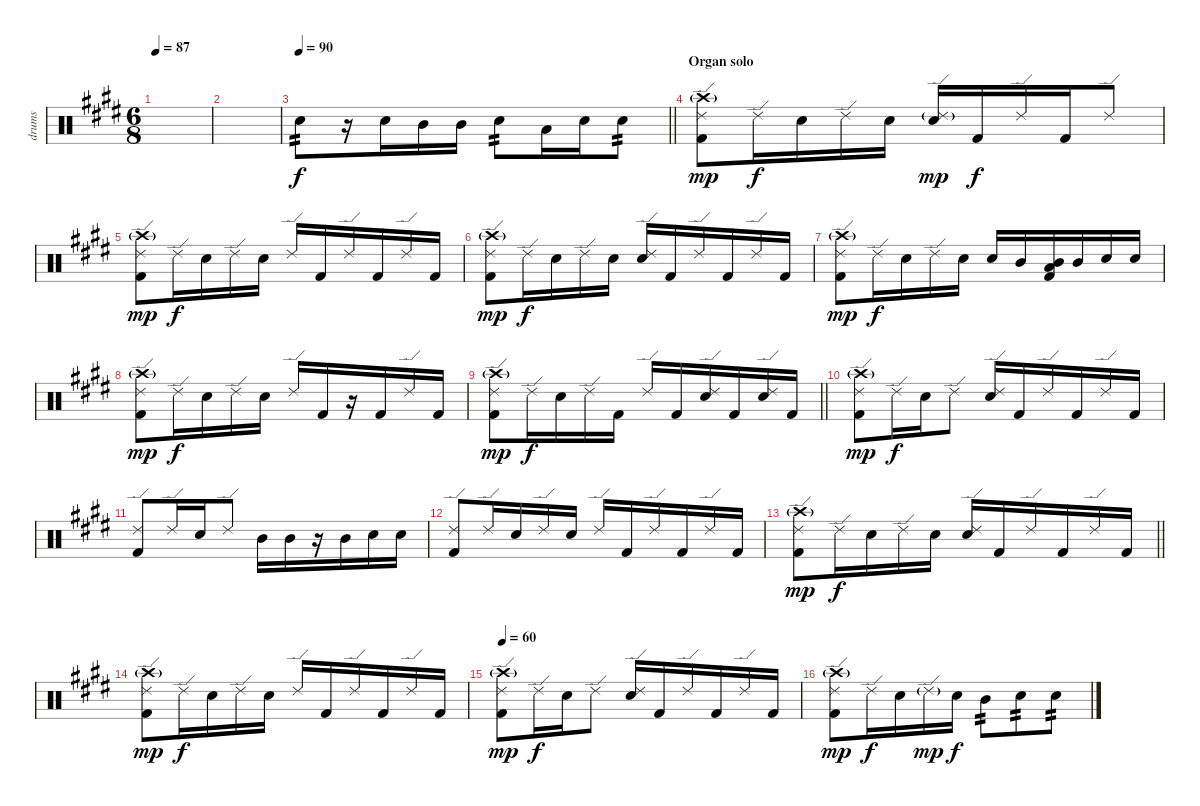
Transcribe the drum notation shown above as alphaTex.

\track ("drums" "drums") {instrument percussion}
\staff {score}
\articulation defaults
\ts (6 8)
\tempo 87
\clef neutral
\ks e
|
|
\tempo 90
\barLineRight lightlight "Electric Snare (hit)".8{tp 2}
r.16 "Electric Snare (hit)".16 "Mid Tom (hit)".16 "Mid Tom (hit)".16 "Electric Snare (hit)".8{tp 2} "Low Tom (hit)".16 "Electric Snare (hit)".16 "Electric Snare (hit)".8{tp 2} |
\section ("" "Organ solo")
("Crash high (hit)"{g} "Ride (edge) 2" "Kick (hit) 2").8{dy mp} "Ride (edge) 2".16{dy f} "Electric Snare (hit)".16 "Ride (edge) 2".16 "Electric Snare (hit)".16 ("Ride (edge) 2"{g} "Electric Snare (hit)").16{dy mp} "Kick (hit) 2".16{dy f} "Ride (edge) 2".16 "Kick (hit) 2".16 "Ride (edge) 2".8 |
("Crash high (hit)"{g} "Ride (edge) 2" "Kick (hit) 2").8{dy mp} "Ride (edge) 2".16{dy f} "Electric Snare (hit)".16 "Ride (edge) 2".16 "Electric Snare (hit)".16 "Ride (edge) 2".16 "Kick (hit) 2".16 "Ride (edge) 2".16 "Kick (hit) 2".16 "Ride (edge) 2".16 "Kick (hit) 2".16 |
("Crash high (hit)"{g} "Ride (edge) 2" "Kick (hit) 2").8{dy mp} "Ride (edge) 2".16{dy f} "Electric Snare (hit)".16 "Ride (edge) 2".16 "Electric Snare (hit)".16 ("Ride (edge) 2" "Electric Snare (hit)").16 "Kick (hit) 2".16 "Ride (edge) 2".16 "Kick (hit) 2".16 "Ride (edge) 2".16 "Kick (hit) 2".16 |
("Crash high (hit)"{g} "Ride (edge) 2" "Kick (hit) 2").8{dy mp} "Ride (edge) 2".16{dy f} "Electric Snare (hit)".16 "Ride (edge) 2".16 "Electric Snare (hit)".16 "Electric Snare (hit)".16 "Mid Tom (hit)".16 ("Low Tom (hit)" "Mid Tom (hit)" "Kick (hit) 2").16 "Mid Tom (hit)".16 "Electric Snare (hit)".16 "Electric Snare (hit)".16 |
("Crash high (hit)"{g} "Ride (edge) 2" "Kick (hit) 2").8{dy mp} "Ride (edge) 2".16{dy f} "Electric Snare (hit)".16 "Ride (edge) 2".16 "Electric Snare (hit)".16 "Ride (edge) 2".16 "Kick (hit) 2".16 r.16 "Kick (hit) 2".16 "Ride (edge) 2".16 "Kick (hit) 2".16 |
\barLineRight lightlight
("Crash high (hit)"{g} "Ride (edge) 2" "Kick (hit) 2").8{dy mp} "Ride (edge) 2".16{dy f} "Electric Snare (hit)".16 "Ride (edge) 2".16 "Kick (hit) 2".16 "Ride (edge) 2".16 "Kick (hit) 2".16 ("Ride (edge) 2" "Electric Snare (hit)").16 "Kick (hit) 2".16 ("Ride (edge) 2" "Electric Snare (hit)").16 "Kick (hit) 2".16 |
("Crash high (hit)"{g} "Ride (edge) 2" "Kick (hit) 2").8{dy mp} "Ride (edge) 2".16{dy f} "Electric Snare (hit)".16 "Ride (edge) 2".8 ("Ride (edge) 2" "Electric Snare (hit)").16 "Kick (hit) 2".16 "Ride (edge) 2".16 "Kick (hit) 2".16 "Ride (edge) 2".16 "Kick (hit) 2".16 |
("Ride (edge) 2" "Kick (hit) 2").8 "Ride (edge) 2".16 "Electric Snare (hit)".16 "Ride (edge) 2".8 "Mid Tom (hit)".16 "Mid Tom (hit)".16 r.16 "Mid Tom (hit)".16 "Electric Snare (hit)".16 "Electric Snare (hit)".16 |
("Ride (edge) 2" "Kick (hit) 2").8 "Ride (edge) 2".16 "Electric Snare (hit)".16 "Ride (edge) 2".16 "Electric Snare (hit)".16 "Ride (edge) 2".16 "Kick (hit) 2".16 "Ride (edge) 2".16 "Kick (hit) 2".16 "Ride (edge) 2".16 "Kick (hit) 2".16 |
\barLineRight lightlight
("Crash high (hit)"{g} "Ride (edge) 2" "Kick (hit) 2").8{dy mp} "Ride (edge) 2".16{dy f} "Electric Snare (hit)".16 "Ride (edge) 2".16 "Electric Snare (hit)".16 ("Ride (edge) 2" "Electric Snare (hit)").16 "Kick (hit) 2".16 "Ride (edge) 2".16 "Kick (hit) 2".16 "Ride (edge) 2".16 "Kick (hit) 2".16 |
("Crash high (hit)"{g} "Ride (edge) 2" "Kick (hit) 2").8{dy mp} "Ride (edge) 2".16{dy f} "Electric Snare (hit)".16 "Ride (edge) 2".16 "Electric Snare (hit)".16 "Ride (edge) 2".16 "Kick (hit) 2".16 "Ride (edge) 2".16 "Kick (hit) 2".16 "Ride (edge) 2".16 "Kick (hit) 2".16 |
\tempo 60
("Crash high (hit)"{g} "Ride (edge) 2" "Kick (hit) 2").8{dy mp} "Ride (edge) 2".16{dy f} "Electric Snare (hit)".16 "Ride (edge) 2".8 ("Ride (edge) 2" "Electric Snare (hit)").16 "Kick (hit) 2".16 "Ride (edge) 2".16 "Kick (hit) 2".16 "Ride (edge) 2".16 "Kick (hit) 2".16 |
("Crash high (hit)"{g} "Ride (edge) 2" "Kick (hit) 2").8{dy mp} "Ride (edge) 2".16{dy f} "Electric Snare (hit)".16 "Ride (edge) 2"{g}.16{dy mp} "Electric Snare (hit)".16{dy f} "Mid Tom (hit)".8{tp 2} "Electric Snare (hit)".8{tp 2} "Electric Snare (hit)".8{tp 2}
